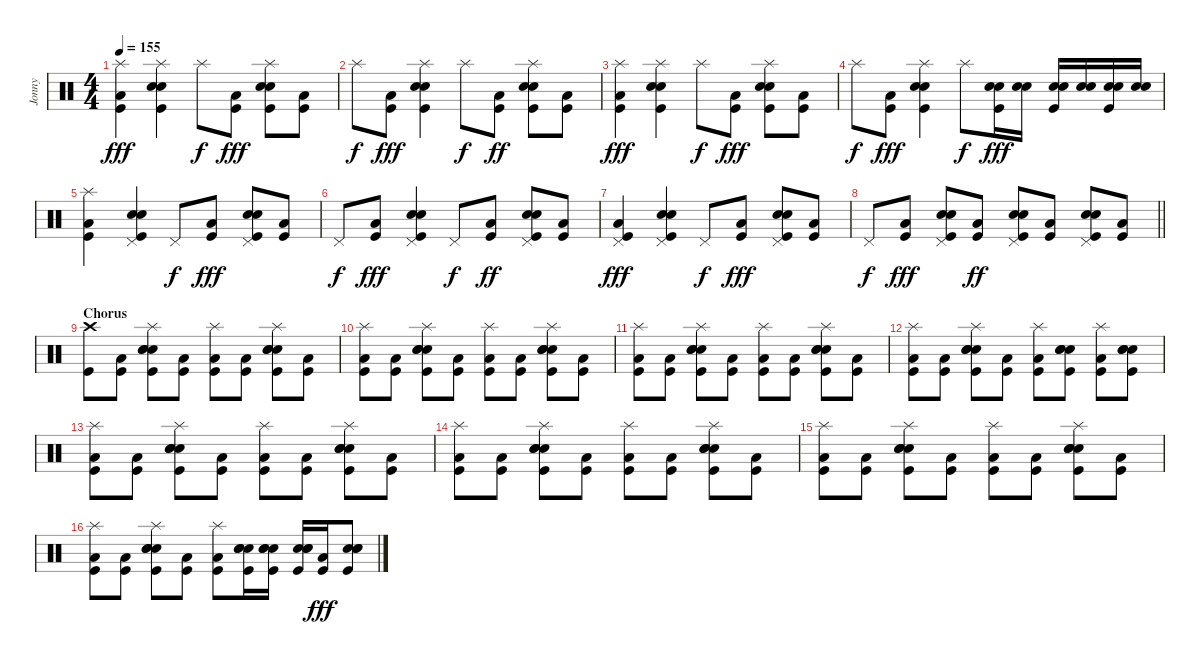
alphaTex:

\track ("Jonny" "Jonny") {instrument percussion}
\staff {score}
\articulation defaults
\ts (4 4)
\tempo 155
\clef neutral
\ks c
("Splash (hit)" "Low Floor Tom (hit)" "Kick (hit)").4{dy fff} ("Splash (hit)" "Electric Snare (hit)" "Electric Snare (hit)" "Kick (hit)").4 "Splash (hit)".8{dy f} ("Low Floor Tom (hit)" "Kick (hit)").8{dy fff} ("Splash (hit)" "Electric Snare (hit)" "Electric Snare (hit)" "Kick (hit)").8 ("Low Floor Tom (hit)" "Kick (hit)").8 |
"Splash (hit)".8{dy f} ("Low Floor Tom (hit)" "Kick (hit)").8{dy fff} ("Splash (hit)" "Electric Snare (hit)" "Electric Snare (hit)" "Kick (hit)").4 "Splash (hit)".8{dy f} ("Low Floor Tom (hit)" "Kick (hit)").8{dy ff} ("Splash (hit)" "Electric Snare (hit)" "Electric Snare (hit)" "Kick (hit)").8 ("Low Floor Tom (hit)" "Kick (hit)").8 |
("Splash (hit)" "Low Floor Tom (hit)" "Kick (hit)").4{dy fff} ("Splash (hit)" "Electric Snare (hit)" "Electric Snare (hit)" "Kick (hit)").4 "Splash (hit)".8{dy f} ("Low Floor Tom (hit)" "Kick (hit)").8{dy fff} ("Splash (hit)" "Electric Snare (hit)" "Electric Snare (hit)" "Kick (hit)").8 ("Low Floor Tom (hit)" "Kick (hit)").8 |
"Splash (hit)".8{dy f} ("Low Floor Tom (hit)" "Kick (hit)").8{dy fff} ("Splash (hit)" "Electric Snare (hit)" "Electric Snare (hit)" "Kick (hit)").4 "Splash (hit)".8{dy f} ("Electric Snare (hit)" "Electric Snare (hit)" "Kick (hit)").16{dy fff} ("Electric Snare (hit)" "Electric Snare (hit)").16 ("Electric Snare (hit)" "Electric Snare (hit)" "Kick (hit)").16 ("Electric Snare (hit)" "Electric Snare (hit)").16 ("Electric Snare (hit)" "Electric Snare (hit)" "Kick (hit)").16 ("Electric Snare (hit)" "Electric Snare (hit)").16 |
("Splash (hit)" "Low Floor Tom (hit)" "Kick (hit)").4 ("Pedal Hi-Hat (hit)" "Electric Snare (hit)" "Electric Snare (hit)" "Kick (hit)").4 "Pedal Hi-Hat (hit)".8{dy f} ("Low Floor Tom (hit)" "Kick (hit)").8{dy fff} ("Pedal Hi-Hat (hit)" "Electric Snare (hit)" "Electric Snare (hit)" "Kick (hit)").8 ("Low Floor Tom (hit)" "Kick (hit)").8 |
"Pedal Hi-Hat (hit)".8{dy f} ("Low Floor Tom (hit)" "Kick (hit)").8{dy fff} ("Pedal Hi-Hat (hit)" "Electric Snare (hit)" "Electric Snare (hit)" "Kick (hit)").4 "Pedal Hi-Hat (hit)".8{dy f} ("Low Floor Tom (hit)" "Kick (hit)").8{dy ff} ("Pedal Hi-Hat (hit)" "Electric Snare (hit)" "Electric Snare (hit)" "Kick (hit)").8 ("Low Floor Tom (hit)" "Kick (hit)").8 |
("Pedal Hi-Hat (hit)" "Low Floor Tom (hit)" "Kick (hit)").4{dy fff} ("Pedal Hi-Hat (hit)" "Electric Snare (hit)" "Electric Snare (hit)" "Kick (hit)").4 "Pedal Hi-Hat (hit)".8{dy f} ("Low Floor Tom (hit)" "Kick (hit)").8{dy fff} ("Pedal Hi-Hat (hit)" "Electric Snare (hit)" "Electric Snare (hit)" "Kick (hit)").8 ("Low Floor Tom (hit)" "Kick (hit)").8 |
\barLineRight lightlight "Pedal Hi-Hat (hit)".8{dy f}
("Low Floor Tom (hit)" "Kick (hit)").8{dy fff} ("Pedal Hi-Hat (hit)" "Electric Snare (hit)" "Electric Snare (hit)" "Kick (hit)").8 ("Low Floor Tom (hit)" "Kick (hit)").8{dy ff} ("Pedal Hi-Hat (hit)" "Electric Snare (hit)" "Electric Snare (hit)" "Kick (hit)").8 ("Low Floor Tom (hit)" "Kick (hit)").8 ("Pedal Hi-Hat (hit)" "Electric Snare (hit)" "Electric Snare (hit)" "Kick (hit)").8 ("Low Floor Tom (hit)" "Kick (hit)").8 |
\section ("" "Chorus")
("Crash high (hit)" "Kick (hit)").8 ("Low Floor Tom (hit)" "Kick (hit)").8 ("Splash (hit)" "Electric Snare (hit)" "Electric Snare (hit)" "Electric Snare (hit)" "Kick (hit)").8 ("Low Floor Tom (hit)" "Kick (hit)").8 ("Splash (hit)" "Low Floor Tom (hit)" "Kick (hit)").8 ("Low Floor Tom (hit)" "Kick (hit)").8 ("Splash (hit)" "Electric Snare (hit)" "Electric Snare (hit)" "Electric Snare (hit)" "Kick (hit)").8 ("Low Floor Tom (hit)" "Kick (hit)").8 |
("Splash (hit)" "Low Floor Tom (hit)" "Kick (hit)").8 ("Low Floor Tom (hit)" "Kick (hit)").8 ("Splash (hit)" "Electric Snare (hit)" "Electric Snare (hit)" "Electric Snare (hit)" "Kick (hit)").8 ("Low Floor Tom (hit)" "Kick (hit)").8 ("Splash (hit)" "Low Floor Tom (hit)" "Kick (hit)").8 ("Low Floor Tom (hit)" "Kick (hit)").8 ("Splash (hit)" "Electric Snare (hit)" "Electric Snare (hit)" "Electric Snare (hit)" "Kick (hit)").8 ("Low Floor Tom (hit)" "Kick (hit)").8 |
("Splash (hit)" "Low Floor Tom (hit)" "Kick (hit)").8 ("Low Floor Tom (hit)" "Kick (hit)").8 ("Splash (hit)" "Electric Snare (hit)" "Electric Snare (hit)" "Electric Snare (hit)" "Kick (hit)").8 ("Low Floor Tom (hit)" "Kick (hit)").8 ("Splash (hit)" "Low Floor Tom (hit)" "Kick (hit)").8 ("Low Floor Tom (hit)" "Kick (hit)").8 ("Splash (hit)" "Electric Snare (hit)" "Electric Snare (hit)" "Electric Snare (hit)" "Kick (hit)").8 ("Low Floor Tom (hit)" "Kick (hit)").8 |
("Splash (hit)" "Low Floor Tom (hit)" "Kick (hit)").8 ("Low Floor Tom (hit)" "Kick (hit)").8 ("Splash (hit)" "Electric Snare (hit)" "Electric Snare (hit)" "Electric Snare (hit)" "Kick (hit)").8 ("Low Floor Tom (hit)" "Kick (hit)").8 ("Splash (hit)" "Low Floor Tom (hit)" "Kick (hit)").8 ("Electric Snare (hit)" "Electric Snare (hit)" "Electric Snare (hit)" "Kick (hit)").8 ("Splash (hit)" "Low Floor Tom (hit)" "Kick (hit)").8 ("Electric Snare (hit)" "Electric Snare (hit)" "Electric Snare (hit)" "Kick (hit)").8 |
("Splash (hit)" "Low Floor Tom (hit)" "Kick (hit)").8 ("Low Floor Tom (hit)" "Kick (hit)").8 ("Splash (hit)" "Electric Snare (hit)" "Electric Snare (hit)" "Electric Snare (hit)" "Kick (hit)").8 ("Low Floor Tom (hit)" "Kick (hit)").8 ("Splash (hit)" "Low Floor Tom (hit)" "Kick (hit)").8 ("Low Floor Tom (hit)" "Kick (hit)").8 ("Splash (hit)" "Electric Snare (hit)" "Electric Snare (hit)" "Electric Snare (hit)" "Kick (hit)").8 ("Low Floor Tom (hit)" "Kick (hit)").8 |
("Splash (hit)" "Low Floor Tom (hit)" "Kick (hit)").8 ("Low Floor Tom (hit)" "Kick (hit)").8 ("Splash (hit)" "Electric Snare (hit)" "Electric Snare (hit)" "Electric Snare (hit)" "Kick (hit)").8 ("Low Floor Tom (hit)" "Kick (hit)").8 ("Splash (hit)" "Low Floor Tom (hit)" "Kick (hit)").8 ("Low Floor Tom (hit)" "Kick (hit)").8 ("Splash (hit)" "Electric Snare (hit)" "Electric Snare (hit)" "Electric Snare (hit)" "Kick (hit)").8 ("Low Floor Tom (hit)" "Kick (hit)").8 |
("Splash (hit)" "Low Floor Tom (hit)" "Kick (hit)").8 ("Low Floor Tom (hit)" "Kick (hit)").8 ("Splash (hit)" "Electric Snare (hit)" "Electric Snare (hit)" "Electric Snare (hit)" "Kick (hit)").8 ("Low Floor Tom (hit)" "Kick (hit)").8 ("Splash (hit)" "Low Floor Tom (hit)" "Kick (hit)").8 ("Low Floor Tom (hit)" "Kick (hit)").8 ("Splash (hit)" "Electric Snare (hit)" "Electric Snare (hit)" "Electric Snare (hit)" "Kick (hit)").8 ("Low Floor Tom (hit)" "Kick (hit)").8 |
("Splash (hit)" "Low Floor Tom (hit)" "Kick (hit)").8 ("Low Floor Tom (hit)" "Kick (hit)").8 ("Splash (hit)" "Electric Snare (hit)" "Electric Snare (hit)" "Electric Snare (hit)" "Kick (hit)").8 ("Low Floor Tom (hit)" "Kick (hit)").8 ("Splash (hit)" "Low Floor Tom (hit)" "Kick (hit)").8 ("Electric Snare (hit)" "Electric Snare (hit)" "Electric Snare (hit)" "Kick (hit)").16 ("Electric Snare (hit)" "Electric Snare (hit)" "Electric Snare (hit)" "Kick (hit)").16 ("Electric Snare (hit)" "Electric Snare (hit)" "Electric Snare (hit)" "Kick (hit)").16 ("Low Floor Tom (hit)" "Kick (hit)").16{dy fff} ("Electric Snare (hit)" "Electric Snare (hit)" "Electric Snare (hit)" "Kick (hit)").8
